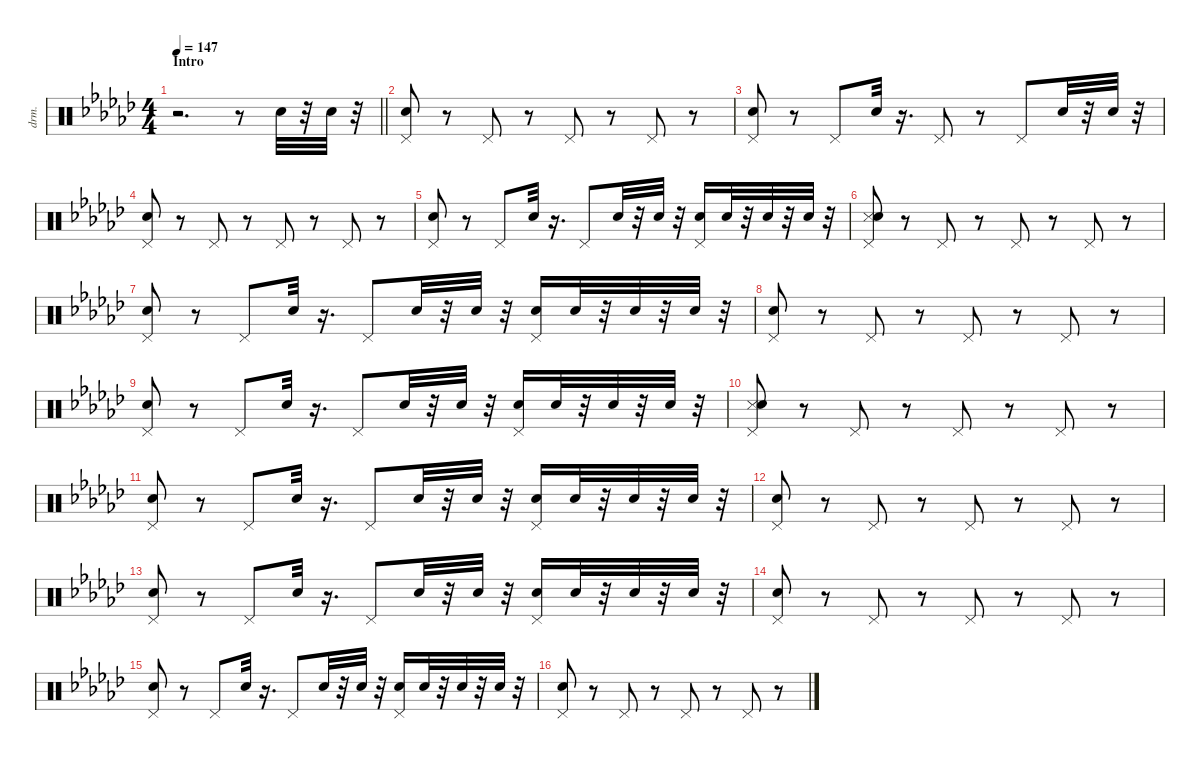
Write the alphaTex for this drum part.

\defaultSystemsLayout 4
\hideDynamics
\bracketExtendMode nobrackets
\otherSystemsTrackNameOrientation horizontal
\track ("Drums" "drm.") {instrument percussion}
\staff {score}
\articulation defaults
\ts (4 4)
\section ("" "Intro")
\ac
\tempo 147
\clef neutral
\barLineRight lightlight
\ks ebminor
r.2{d dy mf beam Down} r.8{beam Down} "Snare (hit) 2"{acc forcenatural}.32{beam Down} r.32{beam Down} "Snare (hit) 2"{acc forcenatural}.32{beam Down} r.32{beam Down} |
("Pedal Hi-Hat (hit)"{acc forcenatural} "Snare (hit) 2"{acc forcenatural}).8{dy f beam Up} r.8{beam Up} "Pedal Hi-Hat (hit)"{acc forcenatural}.8{beam Up} r.8{beam Up} "Pedal Hi-Hat (hit)"{acc forcenatural}.8{beam Up} r.8{beam Up} "Pedal Hi-Hat (hit)"{acc forcenatural}.8{beam Up} r.8{beam Up} |
("Pedal Hi-Hat (hit)"{acc forcenatural} "Snare (hit) 2"{acc forcenatural}).8{beam Up} r.8{beam Up} "Pedal Hi-Hat (hit)"{acc forcenatural}.8{beam Up} "Snare (hit) 2"{acc forcenatural}.32{dy mf beam Up} r.16{d beam Up} "Pedal Hi-Hat (hit)"{acc forcenatural}.8{dy f beam Up} r.8{beam Up} "Pedal Hi-Hat (hit)"{acc forcenatural}.8{beam Up} "Snare (hit) 2"{acc forcenatural}.32{dy mf beam Up} r.32{beam Up} "Snare (hit) 2"{acc forcenatural}.32{beam Up} r.32{beam Up} |
("Pedal Hi-Hat (hit)"{acc forcenatural} "Snare (hit) 2"{acc forcenatural}).8{dy f beam Up} r.8{beam Up} "Pedal Hi-Hat (hit)"{acc forcenatural}.8{beam Up} r.8{beam Up} "Pedal Hi-Hat (hit)"{acc forcenatural}.8{beam Up} r.8{beam Up} "Pedal Hi-Hat (hit)"{acc forcenatural}.8{beam Up} r.8{beam Up} |
("Pedal Hi-Hat (hit)"{acc forcenatural} "Snare (hit) 2"{acc forcenatural}).8{beam Up} r.8{beam Up} "Pedal Hi-Hat (hit)"{acc forcenatural}.8{beam Up} "Snare (hit) 2"{acc forcenatural}.32{dy mf beam Up} r.16{d beam Up} "Pedal Hi-Hat (hit)"{acc forcenatural}.8{dy f beam Up} "Snare (hit) 2"{acc forcenatural}.32{dy p beam Up} r.32{beam Up} "Snare (hit) 2"{acc forcenatural}.32{dy mp beam Up} r.32{beam Up} ("Pedal Hi-Hat (hit)"{acc forcenatural} "Snare (hit) 2"{acc forcenatural}).16{dy f beam Up} "Snare (hit) 2"{acc forcenatural}.32{dy mf beam Up} r.32{beam Up} "Snare (hit) 2"{acc forcenatural}.32{dy f beam Up} r.32{beam Up} "Snare (hit) 2"{acc forcenatural}.32{dy ff beam Up} r.32{beam Up} |
("Pedal Hi-Hat (hit)"{acc forcenatural} "Snare (side stick) 3"{acc forcenatural} "Snare (hit) 2"{acc forcenatural}).8{dy f beam Up} r.8{beam Up} "Pedal Hi-Hat (hit)"{acc forcenatural}.8{beam Up} r.8{beam Up} "Pedal Hi-Hat (hit)"{acc forcenatural}.8{beam Up} r.8{beam Up} "Pedal Hi-Hat (hit)"{acc forcenatural}.8{beam Up} r.8{beam Up} |
("Pedal Hi-Hat (hit)"{acc forcenatural} "Snare (hit) 2"{acc forcenatural}).8{beam Up} r.8{beam Up} "Pedal Hi-Hat (hit)"{acc forcenatural}.8{beam Up} "Snare (hit) 2"{acc forcenatural}.32{dy mf beam Up} r.16{d beam Up} "Pedal Hi-Hat (hit)"{acc forcenatural}.8{dy f beam Up} "Snare (hit) 2"{acc forcenatural}.32{dy p beam Up} r.32{beam Up} "Snare (hit) 2"{acc forcenatural}.32{dy mp beam Up} r.32{beam Up} ("Pedal Hi-Hat (hit)"{acc forcenatural} "Snare (hit) 2"{acc forcenatural}).16{dy f beam Up} "Snare (hit) 2"{acc forcenatural}.32{dy mf beam Up} r.32{beam Up} "Snare (hit) 2"{acc forcenatural}.32{dy f beam Up} r.32{beam Up} "Snare (hit) 2"{acc forcenatural}.32{dy ff beam Up} r.32{beam Up} |
("Pedal Hi-Hat (hit)"{acc forcenatural} "Snare (hit) 2"{acc forcenatural}).8{dy f beam Up} r.8{beam Up} "Pedal Hi-Hat (hit)"{acc forcenatural}.8{beam Up} r.8{beam Up} "Pedal Hi-Hat (hit)"{acc forcenatural}.8{beam Up} r.8{beam Up} "Pedal Hi-Hat (hit)"{acc forcenatural}.8{beam Up} r.8{beam Up} |
("Pedal Hi-Hat (hit)"{acc forcenatural} "Snare (hit) 2"{acc forcenatural}).8{beam Up} r.8{beam Up} "Pedal Hi-Hat (hit)"{acc forcenatural}.8{beam Up} "Snare (hit) 2"{acc forcenatural}.32{dy mf beam Up} r.16{d beam Up} "Pedal Hi-Hat (hit)"{acc forcenatural}.8{dy f beam Up} "Snare (hit) 2"{acc forcenatural}.32{dy p beam Up} r.32{beam Up} "Snare (hit) 2"{acc forcenatural}.32{dy mp beam Up} r.32{beam Up} ("Pedal Hi-Hat (hit)"{acc forcenatural} "Snare (hit) 2"{acc forcenatural}).16{dy f beam Up} "Snare (hit) 2"{acc forcenatural}.32{dy mf beam Up} r.32{beam Up} "Snare (hit) 2"{acc forcenatural}.32{dy f beam Up} r.32{beam Up} "Snare (hit) 2"{acc forcenatural}.32{dy ff beam Up} r.32{beam Up} |
("Pedal Hi-Hat (hit)"{acc forcenatural} "Snare (side stick) 3"{acc forcenatural} "Snare (hit) 2"{acc forcenatural}).8{dy f beam Up} r.8{beam Up} "Pedal Hi-Hat (hit)"{acc forcenatural}.8{beam Up} r.8{beam Up} "Pedal Hi-Hat (hit)"{acc forcenatural}.8{beam Up} r.8{beam Up} "Pedal Hi-Hat (hit)"{acc forcenatural}.8{beam Up} r.8{beam Up} |
("Pedal Hi-Hat (hit)"{acc forcenatural} "Snare (hit) 2"{acc forcenatural}).8{beam Up} r.8{beam Up} "Pedal Hi-Hat (hit)"{acc forcenatural}.8{beam Up} "Snare (hit) 2"{acc forcenatural}.32{dy mf beam Up} r.16{d beam Up} "Pedal Hi-Hat (hit)"{acc forcenatural}.8{dy f beam Up} "Snare (hit) 2"{acc forcenatural}.32{dy p beam Up} r.32{beam Up} "Snare (hit) 2"{acc forcenatural}.32{dy mp beam Up} r.32{beam Up} ("Pedal Hi-Hat (hit)"{acc forcenatural} "Snare (hit) 2"{acc forcenatural}).16{dy f beam Up} "Snare (hit) 2"{acc forcenatural}.32{dy mf beam Up} r.32{beam Up} "Snare (hit) 2"{acc forcenatural}.32{dy f beam Up} r.32{beam Up} "Snare (hit) 2"{acc forcenatural}.32{dy ff beam Up} r.32{beam Up} |
("Pedal Hi-Hat (hit)"{acc forcenatural} "Snare (hit) 2"{acc forcenatural}).8{dy f beam Up} r.8{beam Up} "Pedal Hi-Hat (hit)"{acc forcenatural}.8{beam Up} r.8{beam Up} "Pedal Hi-Hat (hit)"{acc forcenatural}.8{beam Up} r.8{beam Up} "Pedal Hi-Hat (hit)"{acc forcenatural}.8{beam Up} r.8{beam Up} |
("Pedal Hi-Hat (hit)"{acc forcenatural} "Snare (hit) 2"{acc forcenatural}).8{beam Up} r.8{beam Up} "Pedal Hi-Hat (hit)"{acc forcenatural}.8{beam Up} "Snare (hit) 2"{acc forcenatural}.32{dy mf beam Up} r.16{d beam Up} "Pedal Hi-Hat (hit)"{acc forcenatural}.8{dy f beam Up} "Snare (hit) 2"{acc forcenatural}.32{dy p beam Up} r.32{beam Up} "Snare (hit) 2"{acc forcenatural}.32{dy mp beam Up} r.32{beam Up} ("Pedal Hi-Hat (hit)"{acc forcenatural} "Snare (hit) 2"{acc forcenatural}).16{dy f beam Up} "Snare (hit) 2"{acc forcenatural}.32{dy mf beam Up} r.32{beam Up} "Snare (hit) 2"{acc forcenatural}.32{dy f beam Up} r.32{beam Up} "Snare (hit) 2"{acc forcenatural}.32{dy ff beam Up} r.32{beam Up} |
("Pedal Hi-Hat (hit)"{acc forcenatural} "Snare (hit) 2"{acc forcenatural}).8{dy f beam Up} r.8{beam Up} "Pedal Hi-Hat (hit)"{acc forcenatural}.8{beam Up} r.8{beam Up} "Pedal Hi-Hat (hit)"{acc forcenatural}.8{beam Up} r.8{beam Up} "Pedal Hi-Hat (hit)"{acc forcenatural}.8{beam Up} r.8{beam Up} |
("Pedal Hi-Hat (hit)"{acc forcenatural} "Snare (hit) 2"{acc forcenatural}).8{beam Up} r.8{beam Up} "Pedal Hi-Hat (hit)"{acc forcenatural}.8{beam Up} "Snare (hit) 2"{acc forcenatural}.32{dy mf beam Up} r.16{d beam Up} "Pedal Hi-Hat (hit)"{acc forcenatural}.8{dy f beam Up} "Snare (hit) 2"{acc forcenatural}.32{dy p beam Up} r.32{beam Up} "Snare (hit) 2"{acc forcenatural}.32{dy mp beam Up} r.32{beam Up} ("Pedal Hi-Hat (hit)"{acc forcenatural} "Snare (hit) 2"{acc forcenatural}).16{dy f beam Up} "Snare (hit) 2"{acc forcenatural}.32{dy mf beam Up} r.32{beam Up} "Snare (hit) 2"{acc forcenatural}.32{dy f beam Up} r.32{beam Up} "Snare (hit) 2"{acc forcenatural}.32{dy ff beam Up} r.32{beam Up} |
("Pedal Hi-Hat (hit)"{acc forcenatural} "Snare (hit) 2"{acc forcenatural}).8{dy f beam Up} r.8{beam Up} "Pedal Hi-Hat (hit)"{acc forcenatural}.8{beam Up} r.8{beam Up} "Pedal Hi-Hat (hit)"{acc forcenatural}.8{beam Up} r.8{beam Up} "Pedal Hi-Hat (hit)"{acc forcenatural}.8{beam Up} r.8{beam Up}
